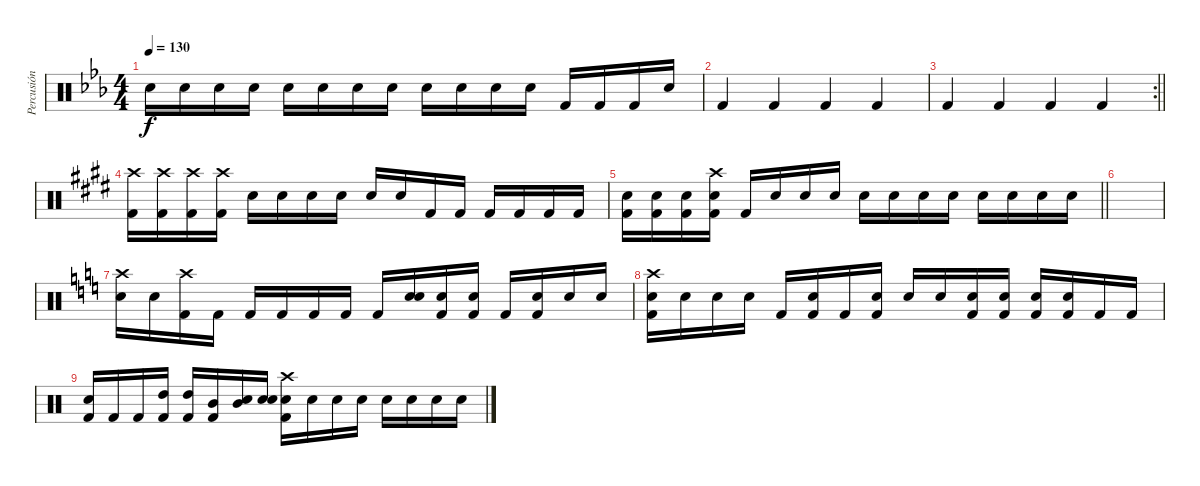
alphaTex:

\track ("Percusión" "Percusión") {instrument percussion}
\staff {score}
\articulation defaults
\ts (4 4)
\tempo 130
\clef neutral
\ks eb "Snare (hit) 2".16{dy f} "Snare (hit) 2".16 "Snare (hit) 2".16 "Snare (hit) 2".16 "Snare (hit)".16 "Snare (hit) 2".16 "Snare (hit) 2".16 "Snare (hit) 2".16 "Snare (hit) 2".16 "Snare (hit)".16 "Snare (hit)".16 "Snare (hit)".16 "Kick (hit) 2".16 "Kick (hit) 2".16 "Kick (hit) 2".16 "Snare (hit)".16
|
"Kick (hit) 2".4 "Kick (hit) 2".4 "Kick (hit) 2".4 "Kick (hit) 2".4 |
\rc 2
\barLineRight lightlight "Kick (hit) 2".4 "Kick (hit) 2".4 "Kick (hit) 2".4 "Kick (hit) 2".4
|
\ks e
("Crash high (hit)" "Kick (hit) 2").16 ("Crash high (hit)" "Kick (hit) 2").16 ("Crash high (hit)" "Kick (hit) 2").16 ("Crash high (hit)" "Kick (hit) 2").16 "Snare (hit)".16 "Snare (hit) 2".16 "Snare (hit) 2".16 "Snare (hit) 2".16 "Snare (hit) 2".16 "Snare (hit)".16 "Kick (hit) 2".16 "Kick (hit) 2".16 "Kick (hit) 2".16 "Kick (hit) 2".16 "Kick (hit) 2".16 "Kick (hit) 2".16 |
\barLineRight lightlight
\ks c#minor
("Snare (hit) 2" "Kick (hit) 2").16 ("Snare (hit) 2" "Kick (hit) 2").16 ("Snare (hit) 2" "Kick (hit) 2").16 ("Crash high (hit)" "Snare (hit) 2" "Kick (hit) 2").16 "Kick (hit) 2".16 "Snare (hit)".16 "Snare (hit)".16 "Snare (hit)".16 "Snare (hit)".16 "Snare (hit)".16 "Snare (hit)".16 "Snare (hit)".16 "Snare (hit)".16 "Snare (hit)".16 "Snare (hit)".16 "Snare (hit)".16 |
\ks e
|
\ks c
("Crash high (hit)" "Snare (hit) 2").16 "Snare (hit) 2".16 ("Crash high (hit)" "Kick (hit) 2").16 "Kick (hit) 2".16 "Kick (hit) 2".16 "Kick (hit) 2".16 "Kick (hit) 2".16 "Kick (hit) 2".16 "Kick (hit) 2".16 ("Snare (hit) 2" "Snare (hit)").16 ("Snare (hit)" "Kick (hit) 2").16 ("Snare (hit) 2" "Kick (hit) 2").16 "Kick (hit) 2".16 ("Snare (hit) 2" "Kick (hit) 2").16 "Snare (hit)".16 "Snare (hit)".16 |
("Crash high (hit)" "Snare (hit) 2" "Kick (hit) 2").16 "Snare (hit) 2".16 "Snare (hit) 2".16 "Snare (hit) 2".16 "Kick (hit) 2".16 ("Snare (hit) 2" "Kick (hit) 2").16 "Kick (hit) 2".16 ("Snare (hit) 2" "Kick (hit) 2").16 "Snare (hit) 2".16 "Snare (hit) 2".16 ("Snare (hit)" "Kick (hit) 2").16 ("Snare (hit)" "Kick (hit) 2").16 ("Snare (hit)" "Kick (hit) 2").16 ("Snare (hit)" "Kick (hit) 2").16 "Kick (hit) 2".16 "Kick (hit) 2".16 |
("Snare (hit) 2" "Kick (hit) 2").16 "Kick (hit) 2".16 "Kick (hit) 2".16 ("High Tom (hit)" "Kick (hit) 2").16 ("High Tom (hit)" "Kick (hit) 2").16 ("Mid Tom (hit)" "Kick (hit) 2").16 ("Mid Tom (hit)" "Snare (hit)").16 ("Snare (hit) 2" "Snare (hit)").16 ("Crash high (hit)" "Snare (hit) 2" "Kick (hit) 2").16 "Snare (hit)".16 "Snare (hit)".16 "Snare (hit)".16 "Snare (hit)".16 "Snare (hit)".16 "Snare (hit)".16 "Snare (hit)".16
